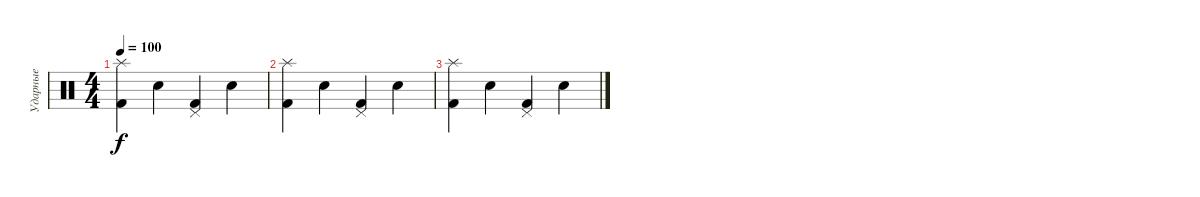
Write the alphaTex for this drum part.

\track ("Ударные" "Ударные") {instrument percussion}
\staff {score}
\articulation defaults
\ts (4 4)
\tempo 100
\clef neutral
\ks c
("Splash (hit)" "Kick (hit) 2").4{dy f} "Snare (hit) 2".4 ("Pedal Hi-Hat (hit)" "Kick (hit) 2").4 "Snare (hit) 2".4 |
("Splash (hit)" "Kick (hit) 2").4 "Snare (hit) 2".4 ("Pedal Hi-Hat (hit)" "Kick (hit) 2").4 "Snare (hit) 2".4 |
("Splash (hit)" "Kick (hit) 2").4 "Snare (hit) 2".4 ("Pedal Hi-Hat (hit)" "Kick (hit) 2").4 "Snare (hit) 2".4
